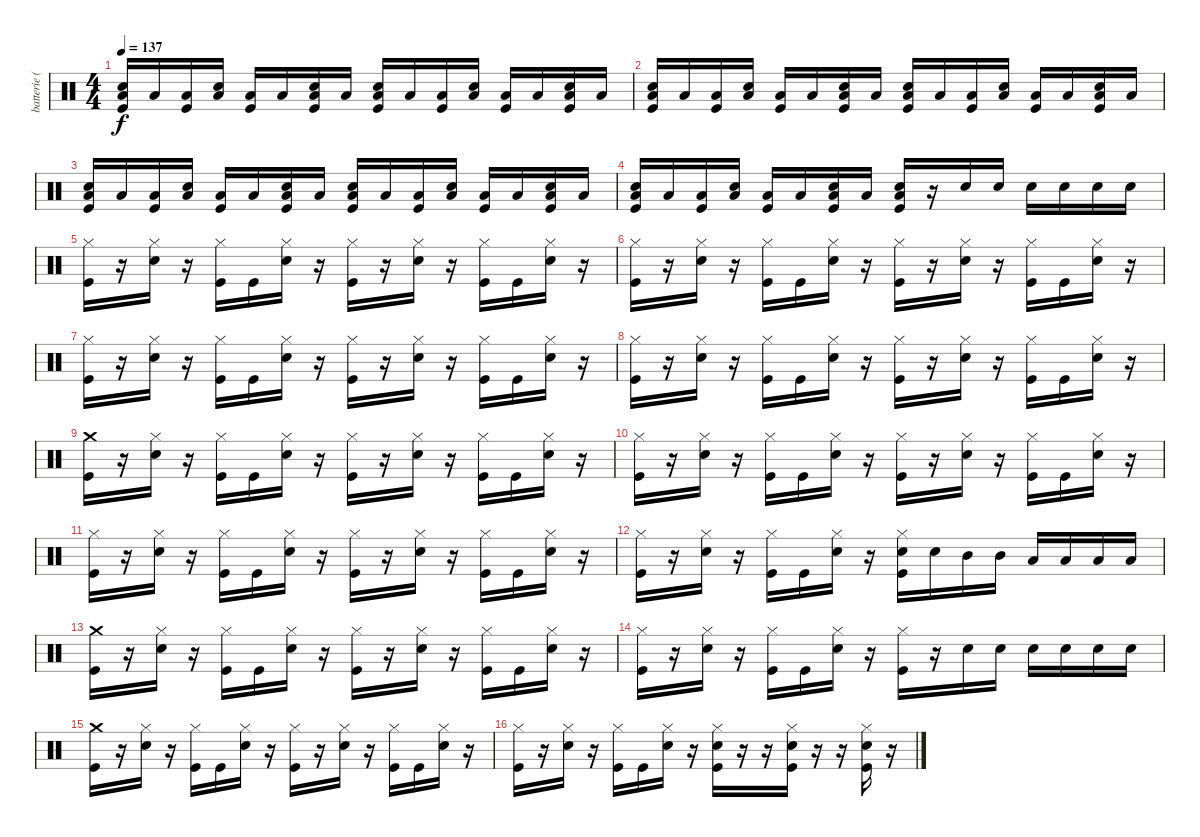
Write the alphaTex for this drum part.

\track ("batterie ( Reed ) " "batterie (") {instrument percussion}
\staff {score}
\articulation defaults
\ts (4 4)
\tempo 137
\clef neutral
\ks c
("Low Floor Tom (hit)" "Snare (hit) 2" "Kick (hit)").16{dy f} "Low Floor Tom (hit)".16 ("Low Floor Tom (hit)" "Kick (hit)").16 ("Low Floor Tom (hit)" "Snare (hit) 2").16 ("Low Floor Tom (hit)" "Kick (hit)").16 "Low Floor Tom (hit)".16 ("Low Floor Tom (hit)" "Snare (hit) 2" "Kick (hit)").16 "Low Floor Tom (hit)".16 ("Low Floor Tom (hit)" "Snare (hit) 2" "Kick (hit)").16 "Low Floor Tom (hit)".16 ("Low Floor Tom (hit)" "Kick (hit)").16 ("Low Floor Tom (hit)" "Snare (hit) 2").16 ("Low Floor Tom (hit)" "Kick (hit)").16 "Low Floor Tom (hit)".16 ("Low Floor Tom (hit)" "Snare (hit) 2" "Kick (hit)").16 "Low Floor Tom (hit)".16 |
("Low Floor Tom (hit)" "Snare (hit) 2" "Kick (hit)").16 "Low Floor Tom (hit)".16 ("Low Floor Tom (hit)" "Kick (hit)").16 ("Low Floor Tom (hit)" "Snare (hit) 2").16 ("Low Floor Tom (hit)" "Kick (hit)").16 "Low Floor Tom (hit)".16 ("Low Floor Tom (hit)" "Snare (hit) 2" "Kick (hit)").16 "Low Floor Tom (hit)".16 ("Low Floor Tom (hit)" "Snare (hit) 2" "Kick (hit)").16 "Low Floor Tom (hit)".16 ("Low Floor Tom (hit)" "Kick (hit)").16 ("Low Floor Tom (hit)" "Snare (hit) 2").16 ("Low Floor Tom (hit)" "Kick (hit)").16 "Low Floor Tom (hit)".16 ("Low Floor Tom (hit)" "Snare (hit) 2" "Kick (hit)").16 "Low Floor Tom (hit)".16 |
("Low Floor Tom (hit)" "Snare (hit) 2" "Kick (hit)").16 "Low Floor Tom (hit)".16 ("Low Floor Tom (hit)" "Kick (hit)").16 ("Low Floor Tom (hit)" "Snare (hit) 2").16 ("Low Floor Tom (hit)" "Kick (hit)").16 "Low Floor Tom (hit)".16 ("Low Floor Tom (hit)" "Snare (hit) 2" "Kick (hit)").16 "Low Floor Tom (hit)".16 ("Low Floor Tom (hit)" "Snare (hit) 2" "Kick (hit)").16 "Low Floor Tom (hit)".16 ("Low Floor Tom (hit)" "Kick (hit)").16 ("Low Floor Tom (hit)" "Snare (hit) 2").16 ("Low Floor Tom (hit)" "Kick (hit)").16 "Low Floor Tom (hit)".16 ("Low Floor Tom (hit)" "Snare (hit) 2" "Kick (hit)").16 "Low Floor Tom (hit)".16 |
("Low Floor Tom (hit)" "Snare (hit) 2" "Kick (hit)").16 "Low Floor Tom (hit)".16 ("Low Floor Tom (hit)" "Kick (hit)").16 ("Low Floor Tom (hit)" "Snare (hit) 2").16 ("Low Floor Tom (hit)" "Kick (hit)").16 "Low Floor Tom (hit)".16 ("Low Floor Tom (hit)" "Snare (hit) 2" "Kick (hit)").16 "Low Floor Tom (hit)".16 ("Low Floor Tom (hit)" "Snare (hit) 2" "Kick (hit)").16 r.16 "Snare (hit) 2".16 "Snare (hit) 2".16 "Snare (hit) 2".16 "Snare (hit) 2".16 "Snare (hit) 2".16 "Snare (hit) 2".16 |
("Hi-Hat (closed)" "Kick (hit)").16 r.16 ("Hi-Hat (closed)" "Snare (hit) 2").16 r.16 ("Hi-Hat (closed)" "Kick (hit)").16 "Kick (hit)".16 ("Hi-Hat (closed)" "Snare (hit) 2").16 r.16 ("Hi-Hat (closed)" "Kick (hit)").16 r.16 ("Hi-Hat (closed)" "Snare (hit) 2").16 r.16 ("Hi-Hat (closed)" "Kick (hit)").16 "Kick (hit)".16 ("Hi-Hat (closed)" "Snare (hit) 2").16 r.16 |
("Hi-Hat (closed)" "Kick (hit)").16 r.16 ("Hi-Hat (closed)" "Snare (hit) 2").16 r.16 ("Hi-Hat (closed)" "Kick (hit)").16 "Kick (hit)".16 ("Hi-Hat (closed)" "Snare (hit) 2").16 r.16 ("Hi-Hat (closed)" "Kick (hit)").16 r.16 ("Hi-Hat (closed)" "Snare (hit) 2").16 r.16 ("Hi-Hat (closed)" "Kick (hit)").16 "Kick (hit)".16 ("Hi-Hat (closed)" "Snare (hit) 2").16 r.16 |
("Hi-Hat (closed)" "Kick (hit)").16 r.16 ("Hi-Hat (closed)" "Snare (hit) 2").16 r.16 ("Hi-Hat (closed)" "Kick (hit)").16 "Kick (hit)".16 ("Hi-Hat (closed)" "Snare (hit) 2").16 r.16 ("Hi-Hat (closed)" "Kick (hit)").16 r.16 ("Hi-Hat (closed)" "Snare (hit) 2").16 r.16 ("Hi-Hat (closed)" "Kick (hit)").16 "Kick (hit)".16 ("Hi-Hat (closed)" "Snare (hit) 2").16 r.16 |
("Hi-Hat (closed)" "Kick (hit)").16 r.16 ("Hi-Hat (closed)" "Snare (hit) 2").16 r.16 ("Hi-Hat (closed)" "Kick (hit)").16 "Kick (hit)".16 ("Hi-Hat (closed)" "Snare (hit) 2").16 r.16 ("Hi-Hat (closed)" "Kick (hit)").16 r.16 ("Hi-Hat (closed)" "Snare (hit) 2").16 r.16 ("Hi-Hat (closed)" "Kick (hit)").16 "Kick (hit)".16 ("Hi-Hat (closed)" "Snare (hit) 2").16 r.16 |
("Crash medium (hit)" "Kick (hit)").16 r.16 ("Hi-Hat (closed)" "Snare (hit) 2").16 r.16 ("Hi-Hat (closed)" "Kick (hit)").16 "Kick (hit)".16 ("Hi-Hat (closed)" "Snare (hit) 2").16 r.16 ("Hi-Hat (closed)" "Kick (hit)").16 r.16 ("Hi-Hat (closed)" "Snare (hit) 2").16 r.16 ("Hi-Hat (closed)" "Kick (hit)").16 "Kick (hit)".16 ("Hi-Hat (closed)" "Snare (hit) 2").16 r.16 |
("Hi-Hat (closed)" "Kick (hit)").16 r.16 ("Hi-Hat (closed)" "Snare (hit) 2").16 r.16 ("Hi-Hat (closed)" "Kick (hit)").16 "Kick (hit)".16 ("Hi-Hat (closed)" "Snare (hit) 2").16 r.16 ("Hi-Hat (closed)" "Kick (hit)").16 r.16 ("Hi-Hat (closed)" "Snare (hit) 2").16 r.16 ("Hi-Hat (closed)" "Kick (hit)").16 "Kick (hit)".16 ("Hi-Hat (closed)" "Snare (hit) 2").16 r.16 |
("Hi-Hat (closed)" "Kick (hit)").16 r.16 ("Hi-Hat (closed)" "Snare (hit) 2").16 r.16 ("Hi-Hat (closed)" "Kick (hit)").16 "Kick (hit)".16 ("Hi-Hat (closed)" "Snare (hit) 2").16 r.16 ("Hi-Hat (closed)" "Kick (hit)").16 r.16 ("Hi-Hat (closed)" "Snare (hit) 2").16 r.16 ("Hi-Hat (closed)" "Kick (hit)").16 "Kick (hit)".16 ("Hi-Hat (closed)" "Snare (hit) 2").16 r.16 |
("Hi-Hat (closed)" "Kick (hit)").16 r.16 ("Hi-Hat (closed)" "Snare (hit) 2").16 r.16 ("Hi-Hat (closed)" "Kick (hit)").16 "Kick (hit)".16 ("Hi-Hat (closed)" "Snare (hit) 2").16 r.16 ("Hi-Hat (closed)" "Snare (hit) 2" "Kick (hit)").16 "Snare (hit) 2".16 "Mid Tom (hit)".16 "Mid Tom (hit)".16 "Low Tom (hit)".16 "Low Tom (hit)".16 "Low Floor Tom (hit)".16 "Low Floor Tom (hit)".16 |
("Crash medium (hit)" "Kick (hit)").16 r.16 ("Hi-Hat (closed)" "Snare (hit) 2").16 r.16 ("Hi-Hat (closed)" "Kick (hit)").16 "Kick (hit)".16 ("Hi-Hat (closed)" "Snare (hit) 2").16 r.16 ("Hi-Hat (closed)" "Kick (hit)").16 r.16 ("Hi-Hat (closed)" "Snare (hit) 2").16 r.16 ("Hi-Hat (closed)" "Kick (hit)").16 "Kick (hit)".16 ("Hi-Hat (closed)" "Snare (hit) 2").16 r.16 |
("Hi-Hat (closed)" "Kick (hit)").16 r.16 ("Hi-Hat (closed)" "Snare (hit) 2").16 r.16 ("Hi-Hat (closed)" "Kick (hit)").16 "Kick (hit)".16 ("Hi-Hat (closed)" "Snare (hit) 2").16 r.16 ("Hi-Hat (closed)" "Kick (hit)").16 r.16 "Snare (hit) 2".16 "Snare (hit) 2".16 "Snare (hit) 2".16 "Snare (hit) 2".16 "Snare (hit) 2".16 "Snare (hit) 2".16 |
("Crash medium (hit)" "Kick (hit)").16 r.16 ("Hi-Hat (closed)" "Snare (hit) 2").16 r.16 ("Hi-Hat (closed)" "Kick (hit)").16 "Kick (hit)".16 ("Hi-Hat (closed)" "Snare (hit) 2").16 r.16 ("Hi-Hat (closed)" "Kick (hit)").16 r.16 ("Hi-Hat (closed)" "Snare (hit) 2").16 r.16 ("Hi-Hat (closed)" "Kick (hit)").16 "Kick (hit)".16 ("Hi-Hat (closed)" "Snare (hit) 2").16 r.16 |
("Hi-Hat (closed)" "Kick (hit)").16 r.16 ("Hi-Hat (closed)" "Snare (hit) 2").16 r.16 ("Hi-Hat (closed)" "Kick (hit)").16 "Kick (hit)".16 ("Hi-Hat (closed)" "Snare (hit) 2").16 r.16 ("Hi-Hat (closed)" "Snare (hit) 2" "Kick (hit)").16 r.16 r.16 ("Hi-Hat (closed)" "Snare (hit) 2" "Kick (hit)").16 r.16 r.16 ("Hi-Hat (closed)" "Snare (hit) 2" "Kick (hit)").16 r.16
